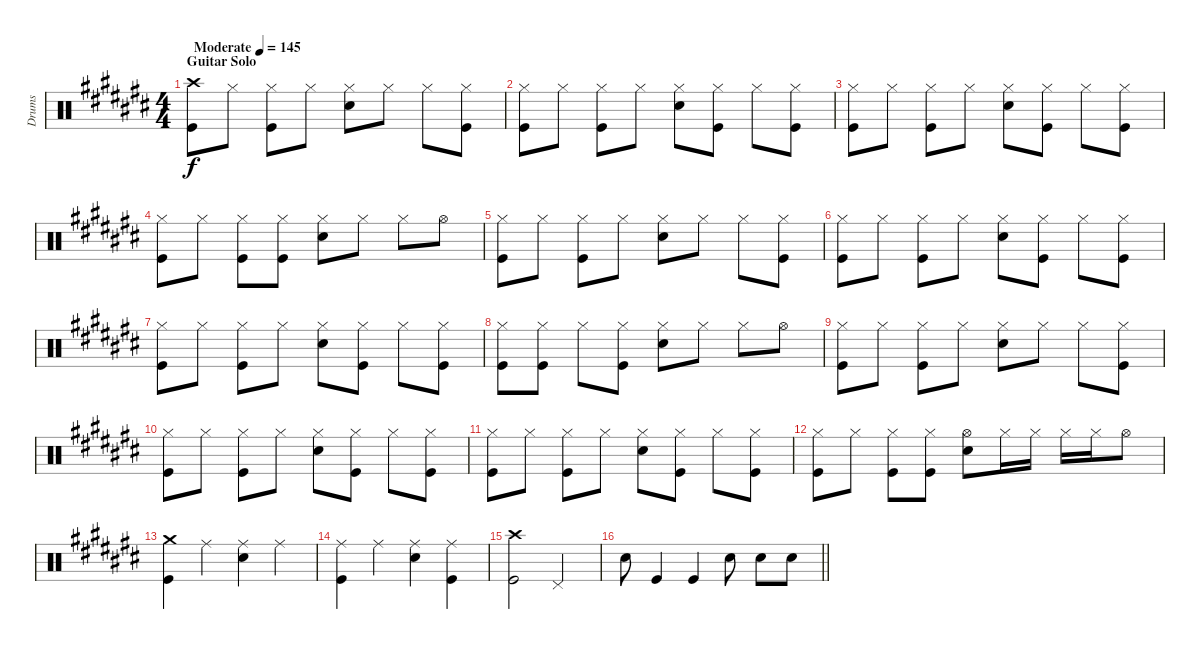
\track ("Drums" "Drums") {instrument percussion}
\staff {score}
\articulation defaults
\ts (4 4)
\section ("" "Guitar Solo")
\tempo (145 "Moderate")
\clef neutral
\ks c#
("Crash high (hit)" "Kick (hit)").8{dy f} "Hi-Hat (closed)".8 ("Hi-Hat (closed)" "Kick (hit)").8 "Hi-Hat (closed)".8 ("Hi-Hat (closed)" "Snare (hit) 2").8 "Hi-Hat (closed)".8 "Hi-Hat (closed)".8 ("Hi-Hat (closed)" "Kick (hit)").8 |
("Hi-Hat (closed)" "Kick (hit)").8 "Hi-Hat (closed)".8 ("Hi-Hat (closed)" "Kick (hit)").8 "Hi-Hat (closed)".8 ("Hi-Hat (closed)" "Snare (hit) 2").8 ("Hi-Hat (closed)" "Kick (hit)").8 "Hi-Hat (closed)".8 ("Hi-Hat (closed)" "Kick (hit)").8 |
("Hi-Hat (closed)" "Kick (hit)").8 "Hi-Hat (closed)".8 ("Hi-Hat (closed)" "Kick (hit)").8 "Hi-Hat (closed)".8 ("Hi-Hat (closed)" "Snare (hit) 2").8 ("Hi-Hat (closed)" "Kick (hit)").8 "Hi-Hat (closed)".8 ("Hi-Hat (closed)" "Kick (hit)").8 |
("Hi-Hat (closed)" "Kick (hit)").8 "Hi-Hat (closed)".8 ("Hi-Hat (closed)" "Kick (hit)").8 ("Hi-Hat (closed)" "Kick (hit)").8 ("Hi-Hat (closed)" "Snare (hit) 2").8 "Hi-Hat (closed)".8 "Hi-Hat (closed)".8 "Hi-Hat (open)".8 |
("Hi-Hat (closed)" "Kick (hit)").8 "Hi-Hat (closed)".8 ("Hi-Hat (closed)" "Kick (hit)").8 "Hi-Hat (closed)".8 ("Hi-Hat (closed)" "Snare (hit) 2").8 "Hi-Hat (closed)".8 "Hi-Hat (closed)".8 ("Hi-Hat (closed)" "Kick (hit)").8 |
("Hi-Hat (closed)" "Kick (hit)").8 "Hi-Hat (closed)".8 ("Hi-Hat (closed)" "Kick (hit)").8 "Hi-Hat (closed)".8 ("Hi-Hat (closed)" "Snare (hit) 2").8 ("Hi-Hat (closed)" "Kick (hit)").8 "Hi-Hat (closed)".8 ("Hi-Hat (closed)" "Kick (hit)").8 |
("Hi-Hat (closed)" "Kick (hit)").8 "Hi-Hat (closed)".8 ("Hi-Hat (closed)" "Kick (hit)").8 "Hi-Hat (closed)".8 ("Hi-Hat (closed)" "Snare (hit) 2").8 ("Hi-Hat (closed)" "Kick (hit)").8 "Hi-Hat (closed)".8 ("Hi-Hat (closed)" "Kick (hit)").8 |
("Hi-Hat (closed)" "Kick (hit)").8 ("Hi-Hat (closed)" "Kick (hit)").8 "Hi-Hat (closed)".8 ("Hi-Hat (closed)" "Kick (hit)").8 ("Hi-Hat (closed)" "Snare (hit) 2").8 "Hi-Hat (closed)".8 "Hi-Hat (closed)".8 "Hi-Hat (open)".8 |
("Hi-Hat (closed)" "Kick (hit)").8 "Hi-Hat (closed)".8 ("Hi-Hat (closed)" "Kick (hit)").8 "Hi-Hat (closed)".8 ("Hi-Hat (closed)" "Snare (hit) 2").8 "Hi-Hat (closed)".8 "Hi-Hat (closed)".8 ("Hi-Hat (closed)" "Kick (hit)").8 |
("Hi-Hat (closed)" "Kick (hit)").8 "Hi-Hat (closed)".8 ("Hi-Hat (closed)" "Kick (hit)").8 "Hi-Hat (closed)".8 ("Hi-Hat (closed)" "Snare (hit) 2").8 ("Hi-Hat (closed)" "Kick (hit)").8 "Hi-Hat (closed)".8 ("Hi-Hat (closed)" "Kick (hit)").8 |
("Hi-Hat (closed)" "Kick (hit)").8 "Hi-Hat (closed)".8 ("Hi-Hat (closed)" "Kick (hit)").8 "Hi-Hat (closed)".8 ("Hi-Hat (closed)" "Snare (hit) 2").8 ("Hi-Hat (closed)" "Kick (hit)").8 "Hi-Hat (closed)".8 ("Hi-Hat (closed)" "Kick (hit)").8 |
("Hi-Hat (closed)" "Kick (hit)").8 "Hi-Hat (closed)".8 ("Hi-Hat (closed)" "Kick (hit)").8 ("Hi-Hat (closed)" "Kick (hit)").8 ("Hi-Hat (open)" "Snare (hit) 2").8 "Hi-Hat (closed)".16 "Hi-Hat (closed)".16 "Hi-Hat (closed)".16 "Hi-Hat (closed)".16 "Hi-Hat (open)".8 |
("Crash medium (hit)" "Kick (hit)").4 "Ride (middle)".4 ("Ride (middle)" "Snare (hit) 2").4 "Ride (middle)".4 |
("Ride (middle)" "Kick (hit)").4 "Ride (middle)".4 ("Ride (middle)" "Snare (hit) 2").4 ("Ride (middle)" "Kick (hit)").4 |
("Crash high (hit)" "Kick (hit)").2 "Pedal Hi-Hat (hit)".2 |
\barLineRight lightlight "Snare (hit) 2".8 "Kick (hit)".4 "Kick (hit)".4 "Snare (hit) 2".8 "Snare (hit) 2".8 "Snare (hit) 2".8
